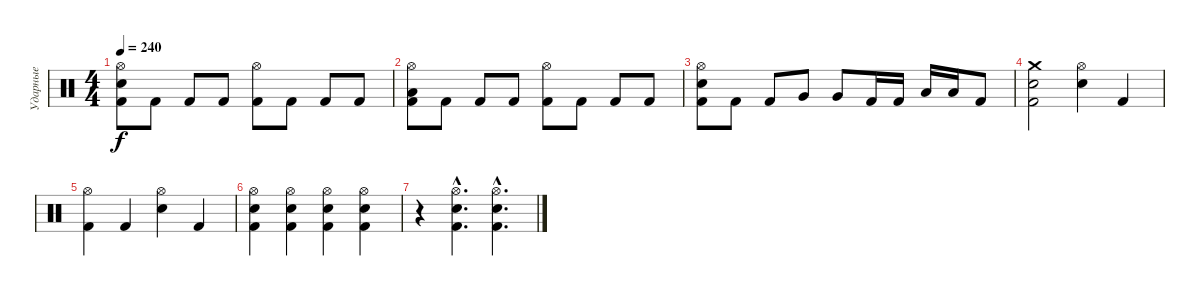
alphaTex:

\track ("Ударные" "Ударные") {instrument percussion}
\staff {score}
\articulation defaults
\ts (4 4)
\tempo 240
\clef neutral
\ks c
("Hi-Hat (open)" "Snare (hit) 2" "Kick (hit) 2").8{dy f} "Kick (hit) 2".8 "Kick (hit) 2".8 "Kick (hit) 2".8 ("Hi-Hat (open)" "Kick (hit) 2").8 "Kick (hit) 2".8 "Kick (hit) 2".8 "Kick (hit) 2".8 |
("Hi-Hat (open)" "Low Tom (hit)" "Kick (hit) 2").8 "Kick (hit) 2".8 "Kick (hit) 2".8 "Kick (hit) 2".8 ("Hi-Hat (open)" "Kick (hit) 2").8 "Kick (hit) 2".8 "Kick (hit) 2".8 "Kick (hit) 2".8 |
("Hi-Hat (open)" "Snare (hit) 2" "Kick (hit) 2").8 "Kick (hit) 2".8 "Kick (hit) 2".8 "Very Low Tom (hit)".8 "Very Low Tom (hit)".8 "Kick (hit) 2".16 "Kick (hit) 2".16 "Low Tom (hit)".16 "Low Tom (hit)".16 "Kick (hit) 2".8 |
("Crash medium (hit)" "Snare (hit) 2" "Kick (hit) 2").2 ("Hi-Hat (open)" "Snare (hit) 2").4 "Kick (hit) 2".4 |
("Hi-Hat (open)" "Kick (hit) 2").4 "Kick (hit) 2".4 ("Hi-Hat (open)" "Snare (hit) 2").4 "Kick (hit) 2".4 |
("Hi-Hat (open)" "Snare (hit) 2" "Kick (hit) 2").4 ("Hi-Hat (open)" "Snare (hit) 2" "Kick (hit) 2").4 ("Hi-Hat (open)" "Snare (hit) 2" "Kick (hit) 2").4 ("Hi-Hat (open)" "Snare (hit) 2" "Kick (hit) 2").4 |
r.4 ("Hi-Hat (open)"{hac} "Snare (hit) 2"{hac} "Kick (hit) 2"{hac}).4{d} ("Hi-Hat (open)"{hac} "Snare (hit) 2"{hac} "Kick (hit) 2"{hac}).4{d}
